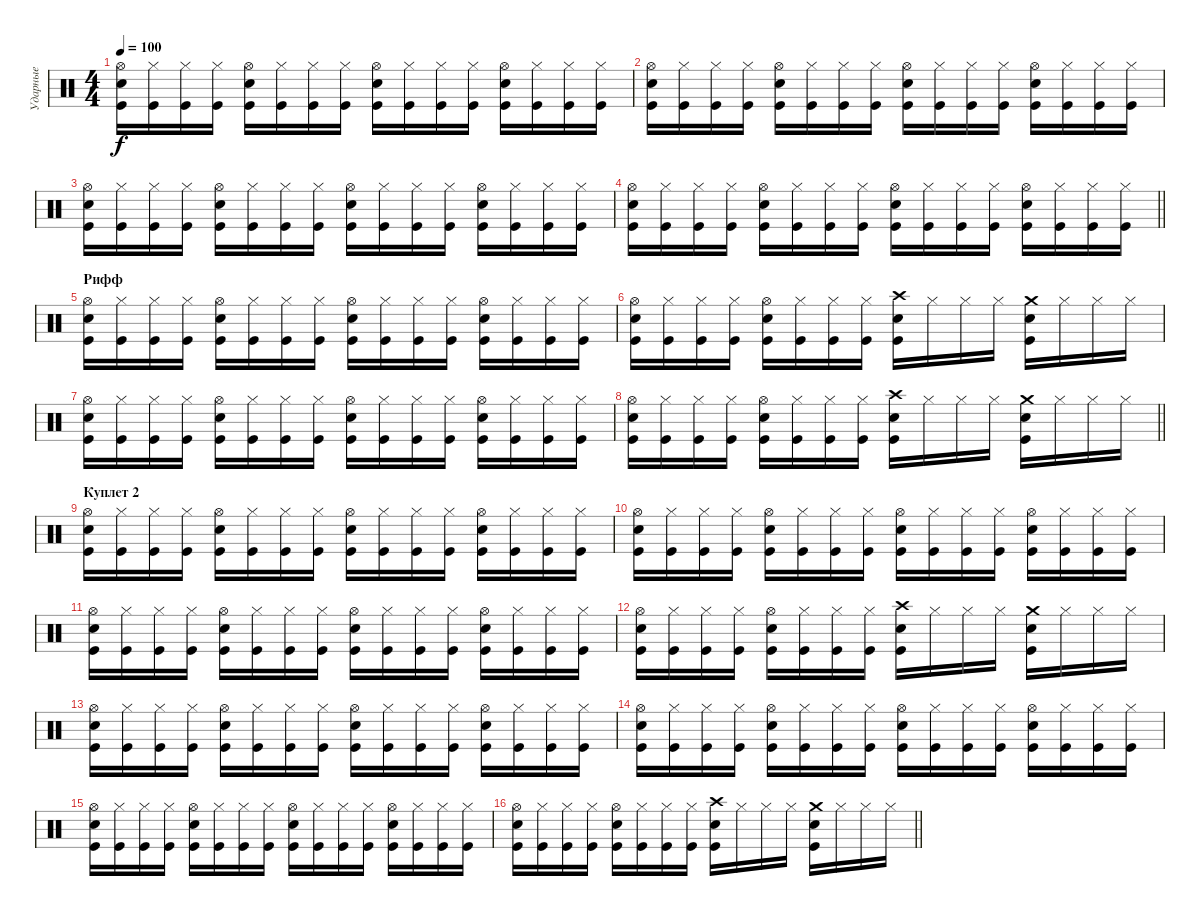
\track ("Ударные" "Ударные") {instrument percussion}
\staff {score}
\articulation defaults
\ts (4 4)
\tempo 100
\clef neutral
\ks c
("Kick (hit)" "Snare (hit) 2" "Hi-Hat (open)").16{dy f} ("Kick (hit)" "Hi-Hat (closed)").16 ("Kick (hit)" "Hi-Hat (closed)").16 ("Kick (hit)" "Hi-Hat (closed)").16 ("Kick (hit)" "Snare (hit) 2" "Hi-Hat (open)").16 ("Kick (hit)" "Hi-Hat (closed)").16 ("Kick (hit)" "Hi-Hat (closed)").16 ("Kick (hit)" "Hi-Hat (closed)").16 ("Kick (hit)" "Snare (hit) 2" "Hi-Hat (open)").16 ("Kick (hit)" "Hi-Hat (closed)").16 ("Kick (hit)" "Hi-Hat (closed)").16 ("Kick (hit)" "Hi-Hat (closed)").16 ("Kick (hit)" "Snare (hit) 2" "Hi-Hat (open)").16 ("Kick (hit)" "Hi-Hat (closed)").16 ("Kick (hit)" "Hi-Hat (closed)").16 ("Kick (hit)" "Hi-Hat (closed)").16 |
("Kick (hit)" "Snare (hit) 2" "Hi-Hat (open)").16 ("Kick (hit)" "Hi-Hat (closed)").16 ("Kick (hit)" "Hi-Hat (closed)").16 ("Kick (hit)" "Hi-Hat (closed)").16 ("Kick (hit)" "Snare (hit) 2" "Hi-Hat (open)").16 ("Kick (hit)" "Hi-Hat (closed)").16 ("Kick (hit)" "Hi-Hat (closed)").16 ("Kick (hit)" "Hi-Hat (closed)").16 ("Kick (hit)" "Snare (hit) 2" "Hi-Hat (open)").16 ("Kick (hit)" "Hi-Hat (closed)").16 ("Kick (hit)" "Hi-Hat (closed)").16 ("Kick (hit)" "Hi-Hat (closed)").16 ("Kick (hit)" "Snare (hit) 2" "Hi-Hat (open)").16 ("Kick (hit)" "Hi-Hat (closed)").16 ("Kick (hit)" "Hi-Hat (closed)").16 ("Kick (hit)" "Hi-Hat (closed)").16 |
("Kick (hit)" "Snare (hit) 2" "Hi-Hat (open)").16 ("Kick (hit)" "Hi-Hat (closed)").16 ("Kick (hit)" "Hi-Hat (closed)").16 ("Kick (hit)" "Hi-Hat (closed)").16 ("Kick (hit)" "Snare (hit) 2" "Hi-Hat (open)").16 ("Kick (hit)" "Hi-Hat (closed)").16 ("Kick (hit)" "Hi-Hat (closed)").16 ("Kick (hit)" "Hi-Hat (closed)").16 ("Kick (hit)" "Snare (hit) 2" "Hi-Hat (open)").16 ("Kick (hit)" "Hi-Hat (closed)").16 ("Kick (hit)" "Hi-Hat (closed)").16 ("Kick (hit)" "Hi-Hat (closed)").16 ("Kick (hit)" "Snare (hit) 2" "Hi-Hat (open)").16 ("Kick (hit)" "Hi-Hat (closed)").16 ("Kick (hit)" "Hi-Hat (closed)").16 ("Kick (hit)" "Hi-Hat (closed)").16 |
\barLineRight lightlight
("Kick (hit)" "Snare (hit) 2" "Hi-Hat (open)").16 ("Kick (hit)" "Hi-Hat (closed)").16 ("Kick (hit)" "Hi-Hat (closed)").16 ("Kick (hit)" "Hi-Hat (closed)").16 ("Kick (hit)" "Snare (hit) 2" "Hi-Hat (open)").16 ("Kick (hit)" "Hi-Hat (closed)").16 ("Kick (hit)" "Hi-Hat (closed)").16 ("Kick (hit)" "Hi-Hat (closed)").16 ("Kick (hit)" "Snare (hit) 2" "Hi-Hat (open)").16 ("Kick (hit)" "Hi-Hat (closed)").16 ("Kick (hit)" "Hi-Hat (closed)").16 ("Kick (hit)" "Hi-Hat (closed)").16 ("Kick (hit)" "Snare (hit) 2" "Hi-Hat (open)").16 ("Kick (hit)" "Hi-Hat (closed)").16 ("Kick (hit)" "Hi-Hat (closed)").16 ("Kick (hit)" "Hi-Hat (closed)").16 |
\section ("" "Рифф")
("Kick (hit)" "Snare (hit) 2" "Hi-Hat (open)").16 ("Kick (hit)" "Hi-Hat (closed)").16 ("Kick (hit)" "Hi-Hat (closed)").16 ("Kick (hit)" "Hi-Hat (closed)").16 ("Kick (hit)" "Snare (hit) 2" "Hi-Hat (open)").16 ("Kick (hit)" "Hi-Hat (closed)").16 ("Kick (hit)" "Hi-Hat (closed)").16 ("Kick (hit)" "Hi-Hat (closed)").16 ("Kick (hit)" "Snare (hit) 2" "Hi-Hat (open)").16 ("Kick (hit)" "Hi-Hat (closed)").16 ("Kick (hit)" "Hi-Hat (closed)").16 ("Kick (hit)" "Hi-Hat (closed)").16 ("Kick (hit)" "Snare (hit) 2" "Hi-Hat (open)").16 ("Kick (hit)" "Hi-Hat (closed)").16 ("Kick (hit)" "Hi-Hat (closed)").16 ("Kick (hit)" "Hi-Hat (closed)").16 |
("Kick (hit)" "Snare (hit) 2" "Hi-Hat (open)").16 ("Kick (hit)" "Hi-Hat (closed)").16 ("Kick (hit)" "Hi-Hat (closed)").16 ("Kick (hit)" "Hi-Hat (closed)").16 ("Kick (hit)" "Snare (hit) 2" "Hi-Hat (open)").16 ("Kick (hit)" "Hi-Hat (closed)").16 ("Kick (hit)" "Hi-Hat (closed)").16 ("Kick (hit)" "Hi-Hat (closed)").16 ("Crash high (hit)" "Kick (hit)" "Snare (hit) 2").16 "Hi-Hat (closed)".16 "Hi-Hat (closed)".16 "Hi-Hat (closed)".16 ("Crash medium (hit)" "Kick (hit)" "Snare (hit) 2").16 "Hi-Hat (closed)".16 "Hi-Hat (closed)".16 "Hi-Hat (closed)".16 |
("Kick (hit)" "Snare (hit) 2" "Hi-Hat (open)").16 ("Kick (hit)" "Hi-Hat (closed)").16 ("Kick (hit)" "Hi-Hat (closed)").16 ("Kick (hit)" "Hi-Hat (closed)").16 ("Kick (hit)" "Snare (hit) 2" "Hi-Hat (open)").16 ("Kick (hit)" "Hi-Hat (closed)").16 ("Kick (hit)" "Hi-Hat (closed)").16 ("Kick (hit)" "Hi-Hat (closed)").16 ("Kick (hit)" "Snare (hit) 2" "Hi-Hat (open)").16 ("Kick (hit)" "Hi-Hat (closed)").16 ("Kick (hit)" "Hi-Hat (closed)").16 ("Kick (hit)" "Hi-Hat (closed)").16 ("Kick (hit)" "Snare (hit) 2" "Hi-Hat (open)").16 ("Kick (hit)" "Hi-Hat (closed)").16 ("Kick (hit)" "Hi-Hat (closed)").16 ("Kick (hit)" "Hi-Hat (closed)").16 |
\barLineRight lightlight
("Kick (hit)" "Snare (hit) 2" "Hi-Hat (open)").16 ("Kick (hit)" "Hi-Hat (closed)").16 ("Kick (hit)" "Hi-Hat (closed)").16 ("Kick (hit)" "Hi-Hat (closed)").16 ("Kick (hit)" "Snare (hit) 2" "Hi-Hat (open)").16 ("Kick (hit)" "Hi-Hat (closed)").16 ("Kick (hit)" "Hi-Hat (closed)").16 ("Kick (hit)" "Hi-Hat (closed)").16 ("Crash high (hit)" "Kick (hit)" "Snare (hit) 2").16 "Hi-Hat (closed)".16 "Hi-Hat (closed)".16 "Hi-Hat (closed)".16 ("Crash medium (hit)" "Kick (hit)" "Snare (hit) 2").16 "Hi-Hat (closed)".16 "Hi-Hat (closed)".16 "Hi-Hat (closed)".16 |
\section ("" "Куплет 2")
("Kick (hit)" "Snare (hit) 2" "Hi-Hat (open)").16 ("Kick (hit)" "Hi-Hat (closed)").16 ("Kick (hit)" "Hi-Hat (closed)").16 ("Kick (hit)" "Hi-Hat (closed)").16 ("Kick (hit)" "Snare (hit) 2" "Hi-Hat (open)").16 ("Kick (hit)" "Hi-Hat (closed)").16 ("Kick (hit)" "Hi-Hat (closed)").16 ("Kick (hit)" "Hi-Hat (closed)").16 ("Kick (hit)" "Snare (hit) 2" "Hi-Hat (open)").16 ("Kick (hit)" "Hi-Hat (closed)").16 ("Kick (hit)" "Hi-Hat (closed)").16 ("Kick (hit)" "Hi-Hat (closed)").16 ("Kick (hit)" "Snare (hit) 2" "Hi-Hat (open)").16 ("Kick (hit)" "Hi-Hat (closed)").16 ("Kick (hit)" "Hi-Hat (closed)").16 ("Kick (hit)" "Hi-Hat (closed)").16 |
("Kick (hit)" "Snare (hit) 2" "Hi-Hat (open)").16 ("Kick (hit)" "Hi-Hat (closed)").16 ("Kick (hit)" "Hi-Hat (closed)").16 ("Kick (hit)" "Hi-Hat (closed)").16 ("Kick (hit)" "Snare (hit) 2" "Hi-Hat (open)").16 ("Kick (hit)" "Hi-Hat (closed)").16 ("Kick (hit)" "Hi-Hat (closed)").16 ("Kick (hit)" "Hi-Hat (closed)").16 ("Kick (hit)" "Snare (hit) 2" "Hi-Hat (open)").16 ("Kick (hit)" "Hi-Hat (closed)").16 ("Kick (hit)" "Hi-Hat (closed)").16 ("Kick (hit)" "Hi-Hat (closed)").16 ("Kick (hit)" "Snare (hit) 2" "Hi-Hat (open)").16 ("Kick (hit)" "Hi-Hat (closed)").16 ("Kick (hit)" "Hi-Hat (closed)").16 ("Kick (hit)" "Hi-Hat (closed)").16 |
("Kick (hit)" "Snare (hit) 2" "Hi-Hat (open)").16 ("Kick (hit)" "Hi-Hat (closed)").16 ("Kick (hit)" "Hi-Hat (closed)").16 ("Kick (hit)" "Hi-Hat (closed)").16 ("Kick (hit)" "Snare (hit) 2" "Hi-Hat (open)").16 ("Kick (hit)" "Hi-Hat (closed)").16 ("Kick (hit)" "Hi-Hat (closed)").16 ("Kick (hit)" "Hi-Hat (closed)").16 ("Kick (hit)" "Snare (hit) 2" "Hi-Hat (open)").16 ("Kick (hit)" "Hi-Hat (closed)").16 ("Kick (hit)" "Hi-Hat (closed)").16 ("Kick (hit)" "Hi-Hat (closed)").16 ("Kick (hit)" "Snare (hit) 2" "Hi-Hat (open)").16 ("Kick (hit)" "Hi-Hat (closed)").16 ("Kick (hit)" "Hi-Hat (closed)").16 ("Kick (hit)" "Hi-Hat (closed)").16 |
("Kick (hit)" "Snare (hit) 2" "Hi-Hat (open)").16 ("Kick (hit)" "Hi-Hat (closed)").16 ("Kick (hit)" "Hi-Hat (closed)").16 ("Kick (hit)" "Hi-Hat (closed)").16 ("Kick (hit)" "Snare (hit) 2" "Hi-Hat (open)").16 ("Kick (hit)" "Hi-Hat (closed)").16 ("Kick (hit)" "Hi-Hat (closed)").16 ("Kick (hit)" "Hi-Hat (closed)").16 ("Crash high (hit)" "Kick (hit)" "Snare (hit) 2").16 "Hi-Hat (closed)".16 "Hi-Hat (closed)".16 "Hi-Hat (closed)".16 ("Crash medium (hit)" "Kick (hit)" "Snare (hit) 2").16 "Hi-Hat (closed)".16 "Hi-Hat (closed)".16 "Hi-Hat (closed)".16 |
("Kick (hit)" "Snare (hit) 2" "Hi-Hat (open)").16 ("Kick (hit)" "Hi-Hat (closed)").16 ("Kick (hit)" "Hi-Hat (closed)").16 ("Kick (hit)" "Hi-Hat (closed)").16 ("Kick (hit)" "Snare (hit) 2" "Hi-Hat (open)").16 ("Kick (hit)" "Hi-Hat (closed)").16 ("Kick (hit)" "Hi-Hat (closed)").16 ("Kick (hit)" "Hi-Hat (closed)").16 ("Kick (hit)" "Snare (hit) 2" "Hi-Hat (open)").16 ("Kick (hit)" "Hi-Hat (closed)").16 ("Kick (hit)" "Hi-Hat (closed)").16 ("Kick (hit)" "Hi-Hat (closed)").16 ("Kick (hit)" "Snare (hit) 2" "Hi-Hat (open)").16 ("Kick (hit)" "Hi-Hat (closed)").16 ("Kick (hit)" "Hi-Hat (closed)").16 ("Kick (hit)" "Hi-Hat (closed)").16 |
("Kick (hit)" "Snare (hit) 2" "Hi-Hat (open)").16 ("Kick (hit)" "Hi-Hat (closed)").16 ("Kick (hit)" "Hi-Hat (closed)").16 ("Kick (hit)" "Hi-Hat (closed)").16 ("Kick (hit)" "Snare (hit) 2" "Hi-Hat (open)").16 ("Kick (hit)" "Hi-Hat (closed)").16 ("Kick (hit)" "Hi-Hat (closed)").16 ("Kick (hit)" "Hi-Hat (closed)").16 ("Kick (hit)" "Snare (hit) 2" "Hi-Hat (open)").16 ("Kick (hit)" "Hi-Hat (closed)").16 ("Kick (hit)" "Hi-Hat (closed)").16 ("Kick (hit)" "Hi-Hat (closed)").16 ("Kick (hit)" "Snare (hit) 2" "Hi-Hat (open)").16 ("Kick (hit)" "Hi-Hat (closed)").16 ("Kick (hit)" "Hi-Hat (closed)").16 ("Kick (hit)" "Hi-Hat (closed)").16 |
("Kick (hit)" "Snare (hit) 2" "Hi-Hat (open)").16 ("Kick (hit)" "Hi-Hat (closed)").16 ("Kick (hit)" "Hi-Hat (closed)").16 ("Kick (hit)" "Hi-Hat (closed)").16 ("Kick (hit)" "Snare (hit) 2" "Hi-Hat (open)").16 ("Kick (hit)" "Hi-Hat (closed)").16 ("Kick (hit)" "Hi-Hat (closed)").16 ("Kick (hit)" "Hi-Hat (closed)").16 ("Kick (hit)" "Snare (hit) 2" "Hi-Hat (open)").16 ("Kick (hit)" "Hi-Hat (closed)").16 ("Kick (hit)" "Hi-Hat (closed)").16 ("Kick (hit)" "Hi-Hat (closed)").16 ("Kick (hit)" "Snare (hit) 2" "Hi-Hat (open)").16 ("Kick (hit)" "Hi-Hat (closed)").16 ("Kick (hit)" "Hi-Hat (closed)").16 ("Kick (hit)" "Hi-Hat (closed)").16 |
\barLineRight lightlight
("Kick (hit)" "Snare (hit) 2" "Hi-Hat (open)").16 ("Kick (hit)" "Hi-Hat (closed)").16 ("Kick (hit)" "Hi-Hat (closed)").16 ("Kick (hit)" "Hi-Hat (closed)").16 ("Kick (hit)" "Snare (hit) 2" "Hi-Hat (open)").16 ("Kick (hit)" "Hi-Hat (closed)").16 ("Kick (hit)" "Hi-Hat (closed)").16 ("Kick (hit)" "Hi-Hat (closed)").16 ("Crash high (hit)" "Kick (hit)" "Snare (hit) 2").16 "Hi-Hat (closed)".16 "Hi-Hat (closed)".16 "Hi-Hat (closed)".16 ("Crash medium (hit)" "Kick (hit)" "Snare (hit) 2").16 "Hi-Hat (closed)".16 "Hi-Hat (closed)".16 "Hi-Hat (closed)".16
